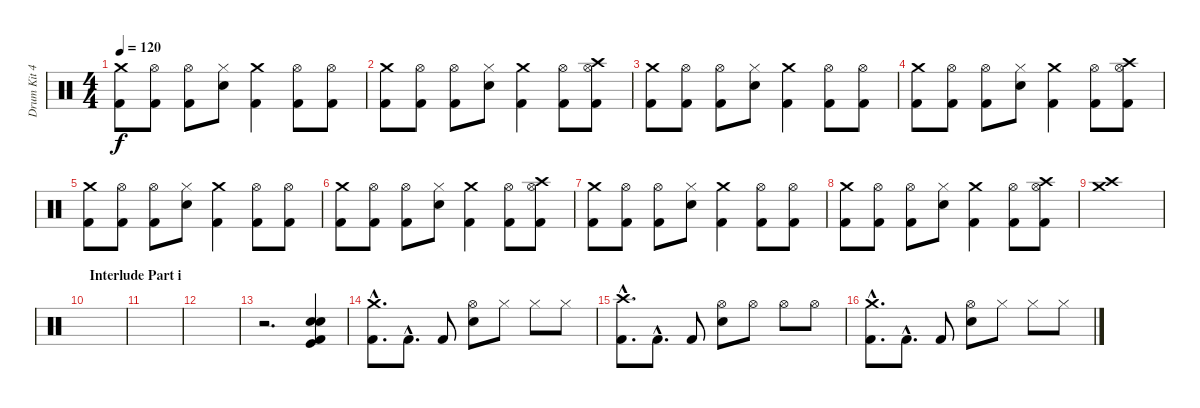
\track ("Drum Kit 42" "Drum Kit 4") {instrument percussion}
\staff {score}
\articulation defaults
\ts (4 4)
\tempo 120
\clef neutral
\ks c
("Crash medium (hit)" "Kick (hit) 2").8{dy f} ("Hi-Hat (open)" "Kick (hit) 2").8 ("Hi-Hat (open)" "Kick (hit) 2").8 ("Hi-Hat (closed)" "Snare (hit) 2").8 ("Crash medium (hit)" "Kick (hit) 2").4 ("Hi-Hat (open)" "Kick (hit) 2").8 ("Hi-Hat (open)" "Kick (hit) 2").8 |
("Crash medium (hit)" "Kick (hit) 2").8 ("Hi-Hat (open)" "Kick (hit) 2").8 ("Hi-Hat (open)" "Kick (hit) 2").8 ("Hi-Hat (closed)" "Snare (hit) 2").8 ("Crash medium (hit)" "Kick (hit) 2").4 ("Hi-Hat (open)" "Kick (hit) 2").8 ("Crash high (hit)" "Hi-Hat (open)" "Kick (hit) 2").8 |
("Crash medium (hit)" "Kick (hit) 2").8 ("Hi-Hat (open)" "Kick (hit) 2").8 ("Hi-Hat (open)" "Kick (hit) 2").8 ("Hi-Hat (closed)" "Snare (hit) 2").8 ("Crash medium (hit)" "Kick (hit) 2").4 ("Hi-Hat (open)" "Kick (hit) 2").8 ("Hi-Hat (open)" "Kick (hit) 2").8 |
("Crash medium (hit)" "Kick (hit) 2").8 ("Hi-Hat (open)" "Kick (hit) 2").8 ("Hi-Hat (open)" "Kick (hit) 2").8 ("Hi-Hat (closed)" "Snare (hit) 2").8 ("Crash medium (hit)" "Kick (hit) 2").4 ("Hi-Hat (open)" "Kick (hit) 2").8 ("Crash high (hit)" "Hi-Hat (open)" "Kick (hit) 2").8 |
("Crash medium (hit)" "Kick (hit) 2").8 ("Hi-Hat (open)" "Kick (hit) 2").8 ("Hi-Hat (open)" "Kick (hit) 2").8 ("Hi-Hat (closed)" "Snare (hit) 2").8 ("Crash medium (hit)" "Kick (hit) 2").4 ("Hi-Hat (open)" "Kick (hit) 2").8 ("Hi-Hat (open)" "Kick (hit) 2").8 |
("Crash medium (hit)" "Kick (hit) 2").8 ("Hi-Hat (open)" "Kick (hit) 2").8 ("Hi-Hat (open)" "Kick (hit) 2").8 ("Hi-Hat (closed)" "Snare (hit) 2").8 ("Crash medium (hit)" "Kick (hit) 2").4 ("Hi-Hat (open)" "Kick (hit) 2").8 ("Crash high (hit)" "Hi-Hat (open)" "Kick (hit) 2").8 |
("Crash medium (hit)" "Kick (hit) 2").8 ("Hi-Hat (open)" "Kick (hit) 2").8 ("Hi-Hat (open)" "Kick (hit) 2").8 ("Hi-Hat (closed)" "Snare (hit) 2").8 ("Crash medium (hit)" "Kick (hit) 2").4 ("Hi-Hat (open)" "Kick (hit) 2").8 ("Hi-Hat (open)" "Kick (hit) 2").8 |
("Crash medium (hit)" "Kick (hit) 2").8 ("Hi-Hat (open)" "Kick (hit) 2").8 ("Hi-Hat (open)" "Kick (hit) 2").8 ("Hi-Hat (closed)" "Snare (hit) 2").8 ("Crash medium (hit)" "Kick (hit) 2").4 ("Hi-Hat (open)" "Kick (hit) 2").8 ("Crash high (hit)" "Hi-Hat (open)" "Kick (hit) 2").8 |
("Crash medium (hit)" "Crash high (hit)").1 |
\section ("" "Interlude Part i")
|
|
|
r.2{d} ("Snare (hit) 2" "Snare (hit) 2" "Kick (hit)" "Kick (hit) 2").4 |
("Crash medium (hit)"{hac} "Kick (hit) 2"{hac}).8{d} "Kick (hit) 2"{hac}.8{d} "Kick (hit) 2".8 ("Hi-Hat (open)" "Snare (hit) 2").8 "Hi-Hat (closed)".8 "Hi-Hat (closed)".8 "Hi-Hat (closed)".8 |
("Crash high (hit)"{hac} "Kick (hit) 2"{hac}).8{d} "Kick (hit) 2"{hac}.8{d} "Kick (hit) 2".8 ("Hi-Hat (open)" "Snare (hit) 2").8 "Hi-Hat (open)".8 "Hi-Hat (open)".8 "Hi-Hat (open)".8 |
("Crash medium (hit)"{hac} "Kick (hit) 2"{hac}).8{d} "Kick (hit) 2"{hac}.8{d} "Kick (hit) 2".8 ("Hi-Hat (open)" "Snare (hit) 2").8 "Hi-Hat (closed)".8 "Hi-Hat (closed)".8 "Hi-Hat (closed)".8
